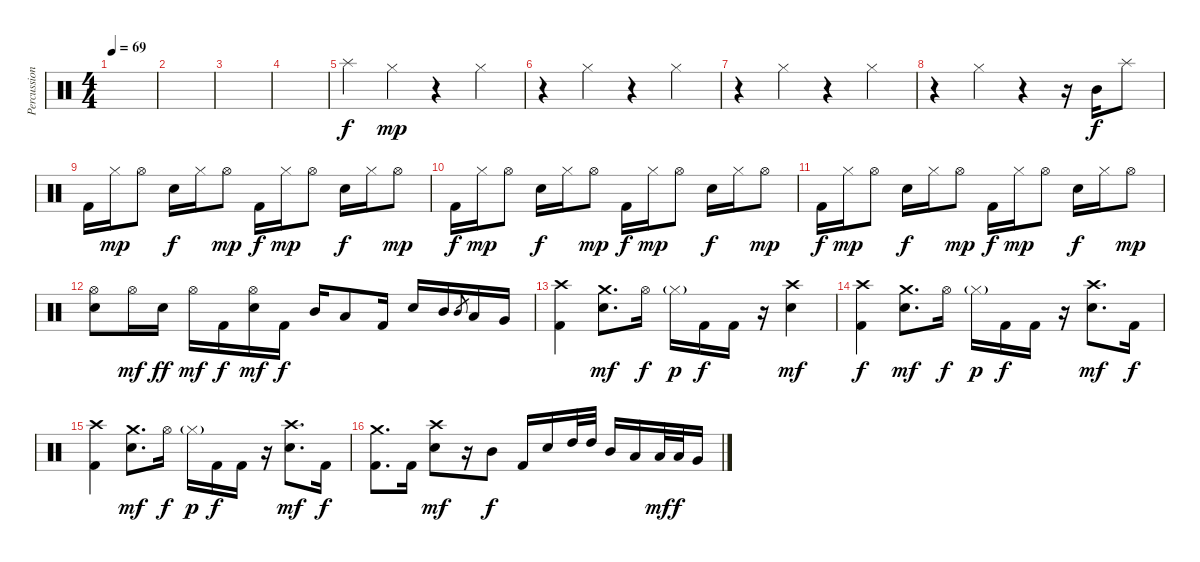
\track ("Percussion" "Percussion") {instrument percussion}
\staff {score}
\articulation defaults
\ts (4 4)
\tempo 69
\clef neutral
\ks c
|
|
|
|
"Splash (hit)".4 "Hi-Hat (closed)".4{dy mp} r.4 "Hi-Hat (closed)".4 |
r.4 "Hi-Hat (closed)".4 r.4 "Hi-Hat (closed)".4 |
r.4 "Hi-Hat (closed)".4 r.4 "Hi-Hat (closed)".4 |
r.4 "Hi-Hat (closed)".4 r.4 r.16 "Mid Tom (hit)".16{dy f} "Splash (hit)".8 |
"Kick (hit) 2".16 "Hi-Hat (closed)".16{dy mp} "Hi-Hat (open)".8 "Snare (hit) 2".16{dy f} "Hi-Hat (closed)".16 "Hi-Hat (open)".8{dy mp} "Kick (hit) 2".16{dy f} "Hi-Hat (closed)".16{dy mp} "Hi-Hat (open)".8 "Snare (hit) 2".16{dy f} "Hi-Hat (closed)".16 "Hi-Hat (open)".8{dy mp} |
"Kick (hit) 2".16{dy f} "Hi-Hat (closed)".16{dy mp} "Hi-Hat (open)".8 "Snare (hit) 2".16{dy f} "Hi-Hat (closed)".16 "Hi-Hat (open)".8{dy mp} "Kick (hit) 2".16{dy f} "Hi-Hat (closed)".16{dy mp} "Hi-Hat (open)".8 "Snare (hit) 2".16{dy f} "Hi-Hat (closed)".16 "Hi-Hat (open)".8{dy mp} |
"Kick (hit) 2".16{dy f} "Hi-Hat (closed)".16{dy mp} "Hi-Hat (open)".8 "Snare (hit) 2".16{dy f} "Hi-Hat (closed)".16 "Hi-Hat (open)".8{dy mp} "Kick (hit) 2".16{dy f} "Hi-Hat (closed)".16{dy mp} "Hi-Hat (open)".8 "Snare (hit) 2".16{dy f} "Hi-Hat (closed)".16 "Hi-Hat (open)".8{dy mp} |
("Hi-Hat (open)" "Snare (hit) 2").8 "Hi-Hat (open)".16{dy mf} "Snare (hit) 2".16{dy ff} "Hi-Hat (open)".16{dy mf} "Kick (hit) 2".16{dy f} ("Hi-Hat (open)" "Snare (hit) 2").16{dy mf} "Kick (hit) 2".16{dy f} "Mid Tom (hit)".16 "Low Tom (hit)".8 "Kick (hit) 2".16 "Snare (hit) 2".16 "Mid Tom (hit)".16 "Mid Tom (hit)".8{gr} "Low Tom (hit)".16 "Very Low Tom (hit)".16 |
("Crash high (hit)" "Kick (hit) 2").4 ("Crash medium (hit)" "Snare (hit) 2").8{d dy mf} "Hi-Hat (open)".16{dy f} "Hi-Hat (closed)"{g}.16{dy p} "Kick (hit) 2".16{dy f} "Kick (hit) 2".16 r.16 ("Crash high (hit)" "Snare (hit) 2").4{dy mf} |
("Crash high (hit)" "Kick (hit) 2").4{dy f} ("Crash medium (hit)" "Snare (hit) 2").8{d dy mf} "Hi-Hat (open)".16{dy f} "Hi-Hat (closed)"{g}.16{dy p} "Kick (hit) 2".16{dy f} "Kick (hit) 2".16 r.16 ("Crash high (hit)" "Snare (hit) 2").8{d dy mf} "Kick (hit) 2".16{dy f} |
("Crash high (hit)" "Kick (hit) 2").4 ("Crash medium (hit)" "Snare (hit) 2").8{d dy mf} "Hi-Hat (open)".16{dy f} "Hi-Hat (closed)"{g}.16{dy p} "Kick (hit) 2".16{dy f} "Kick (hit) 2".16 r.16 ("Crash high (hit)" "Snare (hit) 2").8{d dy mf} "Kick (hit) 2".16{dy f} |
("Crash medium (hit)" "Kick (hit) 2").8{d} "Kick (hit) 2".16 ("Crash high (hit)" "Snare (hit) 2").8{dy mf} r.16 "Mid Tom (hit)".8{dy f} "Kick (hit) 2".16 "Snare (hit) 2".16 "High Tom (hit)".32 "High Tom (hit)".32 "Mid Tom (hit)".16 "Low Tom (hit)".16 "Low Tom (hit)".32{dy mf} "Low Tom (hit)".32{dy f} "Very Low Tom (hit)".16
